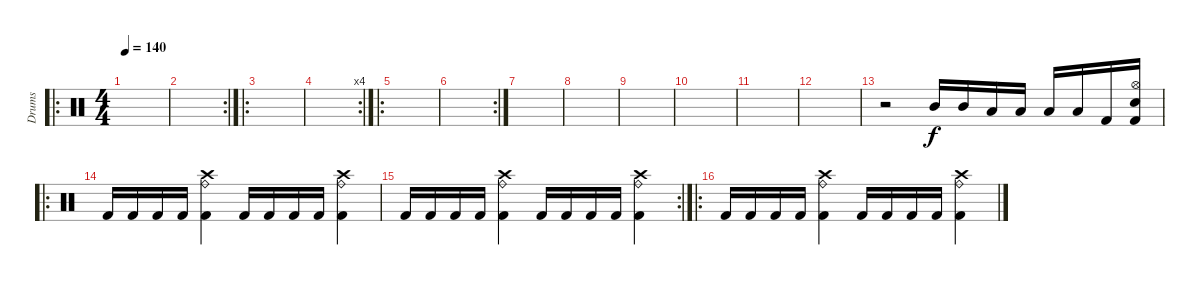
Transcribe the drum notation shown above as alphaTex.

\track ("Drums" "Drums") {instrument percussion}
\staff {score}
\articulation defaults
\ro
\ts (4 4)
\tempo 140
\clef neutral
\ks c
|
\rc 2
|
\ro
|
\rc 4
|
\ro
|
\rc 2
|
|
|
|
|
|
|
r.2 "Mid Tom (hit)".16 "Mid Tom (hit)".16 "Low Tom (hit)".16 "Low Tom (hit)".16 "Low Floor Tom (hit)".16 "Low Floor Tom (hit)".16 "Kick (hit) 2".16 ("Hi-Hat (open)" "Electric Snare (hit)" "Kick (hit) 2").16 |
\ro "Kick (hit) 2".16 "Kick (hit) 2".16 "Kick (hit) 2".16 "Kick (hit) 2".16
("Crash high (hit)" "Ride (bell)" "Kick (hit) 2").4 "Kick (hit) 2".16 "Kick (hit) 2".16 "Kick (hit) 2".16 "Kick (hit) 2".16 ("Crash high (hit)" "Ride (bell)" "Kick (hit) 2").4 |
\rc 2 "Kick (hit) 2".16 "Kick (hit) 2".16 "Kick (hit) 2".16 "Kick (hit) 2".16
("Crash high (hit)" "Ride (bell)" "Kick (hit) 2").4 "Kick (hit) 2".16 "Kick (hit) 2".16 "Kick (hit) 2".16 "Kick (hit) 2".16 ("Crash high (hit)" "Ride (bell)" "Kick (hit) 2").4 |
\ro "Kick (hit) 2".16 "Kick (hit) 2".16 "Kick (hit) 2".16 "Kick (hit) 2".16
("Crash high (hit)" "Ride (bell)" "Kick (hit) 2").4 "Kick (hit) 2".16 "Kick (hit) 2".16 "Kick (hit) 2".16 "Kick (hit) 2".16 ("Crash high (hit)" "Ride (bell)" "Kick (hit) 2").4
